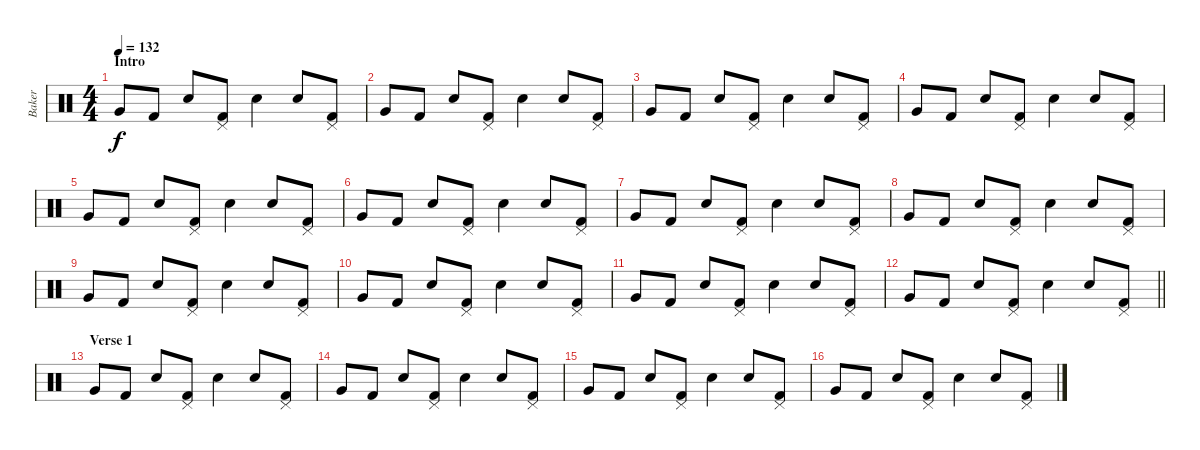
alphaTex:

\track ("Baker" "Baker") {instrument percussion}
\staff {score}
\articulation defaults
\ts (4 4)
\section ("" "Intro")
\tempo 132
\clef neutral
\ks c "Very Low Tom (hit)".8{dy f} "Kick (hit) 2".8 "Snare (hit) 2".8
("Pedal Hi-Hat (hit)" "Kick (hit) 2").8 "Snare (hit) 2".4 "Snare (hit) 2".8 ("Pedal Hi-Hat (hit)" "Kick (hit) 2").8 |
"Very Low Tom (hit)".8 "Kick (hit) 2".8 "Snare (hit) 2".8 ("Pedal Hi-Hat (hit)" "Kick (hit) 2").8 "Snare (hit) 2".4 "Snare (hit) 2".8 ("Pedal Hi-Hat (hit)" "Kick (hit) 2").8 |
"Very Low Tom (hit)".8 "Kick (hit) 2".8 "Snare (hit) 2".8 ("Pedal Hi-Hat (hit)" "Kick (hit) 2").8 "Snare (hit) 2".4 "Snare (hit) 2".8 ("Pedal Hi-Hat (hit)" "Kick (hit) 2").8 |
"Very Low Tom (hit)".8 "Kick (hit) 2".8 "Snare (hit) 2".8 ("Pedal Hi-Hat (hit)" "Kick (hit) 2").8 "Snare (hit) 2".4 "Snare (hit) 2".8 ("Pedal Hi-Hat (hit)" "Kick (hit) 2").8 |
"Very Low Tom (hit)".8 "Kick (hit) 2".8 "Snare (hit) 2".8 ("Pedal Hi-Hat (hit)" "Kick (hit) 2").8 "Snare (hit) 2".4 "Snare (hit) 2".8 ("Pedal Hi-Hat (hit)" "Kick (hit) 2").8 |
"Very Low Tom (hit)".8 "Kick (hit) 2".8 "Snare (hit) 2".8 ("Pedal Hi-Hat (hit)" "Kick (hit) 2").8 "Snare (hit) 2".4 "Snare (hit) 2".8 ("Pedal Hi-Hat (hit)" "Kick (hit) 2").8 |
"Very Low Tom (hit)".8 "Kick (hit) 2".8 "Snare (hit) 2".8 ("Pedal Hi-Hat (hit)" "Kick (hit) 2").8 "Snare (hit) 2".4 "Snare (hit) 2".8 ("Pedal Hi-Hat (hit)" "Kick (hit) 2").8 |
"Very Low Tom (hit)".8 "Kick (hit) 2".8 "Snare (hit) 2".8 ("Pedal Hi-Hat (hit)" "Kick (hit) 2").8 "Snare (hit) 2".4 "Snare (hit) 2".8 ("Pedal Hi-Hat (hit)" "Kick (hit) 2").8 |
"Very Low Tom (hit)".8 "Kick (hit) 2".8 "Snare (hit) 2".8 ("Pedal Hi-Hat (hit)" "Kick (hit) 2").8 "Snare (hit) 2".4 "Snare (hit) 2".8 ("Pedal Hi-Hat (hit)" "Kick (hit) 2").8 |
"Very Low Tom (hit)".8 "Kick (hit) 2".8 "Snare (hit) 2".8 ("Pedal Hi-Hat (hit)" "Kick (hit) 2").8 "Snare (hit) 2".4 "Snare (hit) 2".8 ("Pedal Hi-Hat (hit)" "Kick (hit) 2").8 |
"Very Low Tom (hit)".8 "Kick (hit) 2".8 "Snare (hit) 2".8 ("Pedal Hi-Hat (hit)" "Kick (hit) 2").8 "Snare (hit) 2".4 "Snare (hit) 2".8 ("Pedal Hi-Hat (hit)" "Kick (hit) 2").8 |
\barLineRight lightlight "Very Low Tom (hit)".8 "Kick (hit) 2".8 "Snare (hit) 2".8
("Pedal Hi-Hat (hit)" "Kick (hit) 2").8 "Snare (hit) 2".4 "Snare (hit) 2".8 ("Pedal Hi-Hat (hit)" "Kick (hit) 2").8 |
\section ("" "Verse 1")
"Very Low Tom (hit)".8 "Kick (hit) 2".8 "Snare (hit) 2".8 ("Pedal Hi-Hat (hit)" "Kick (hit) 2").8 "Snare (hit) 2".4 "Snare (hit) 2".8 ("Pedal Hi-Hat (hit)" "Kick (hit) 2").8 |
"Very Low Tom (hit)".8 "Kick (hit) 2".8 "Snare (hit) 2".8 ("Pedal Hi-Hat (hit)" "Kick (hit) 2").8 "Snare (hit) 2".4 "Snare (hit) 2".8 ("Pedal Hi-Hat (hit)" "Kick (hit) 2").8 |
"Very Low Tom (hit)".8 "Kick (hit) 2".8 "Snare (hit) 2".8 ("Pedal Hi-Hat (hit)" "Kick (hit) 2").8 "Snare (hit) 2".4 "Snare (hit) 2".8 ("Pedal Hi-Hat (hit)" "Kick (hit) 2").8 |
"Very Low Tom (hit)".8 "Kick (hit) 2".8 "Snare (hit) 2".8 ("Pedal Hi-Hat (hit)" "Kick (hit) 2").8 "Snare (hit) 2".4 "Snare (hit) 2".8 ("Pedal Hi-Hat (hit)" "Kick (hit) 2").8
